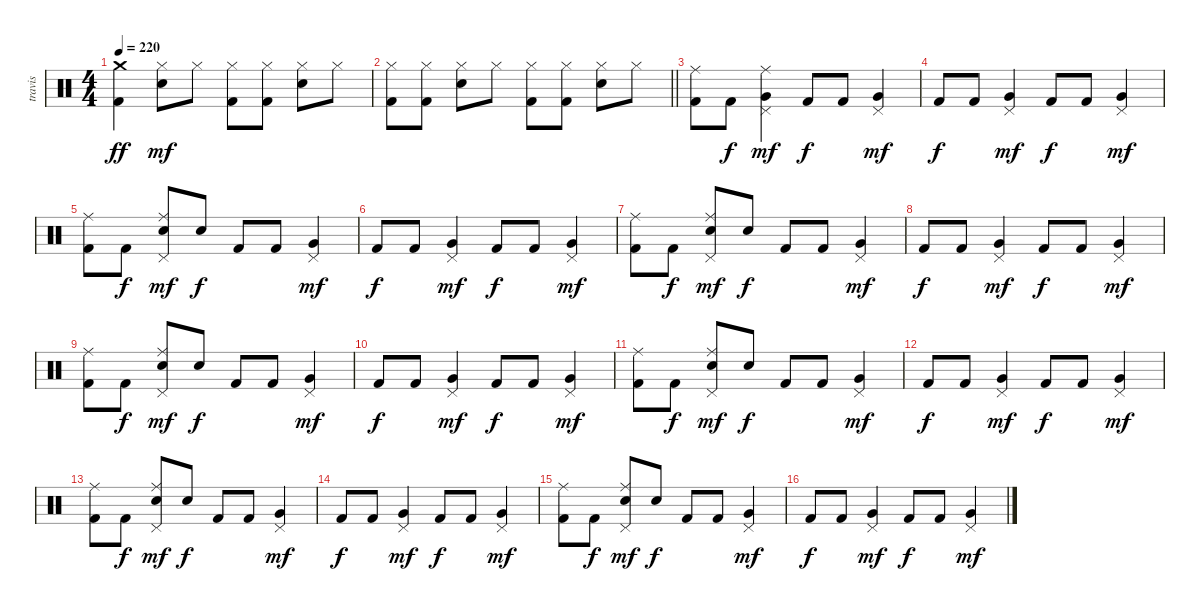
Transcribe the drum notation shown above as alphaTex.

\track ("travis" "travis") {instrument percussion}
\staff {score}
\articulation defaults
\ts (4 4)
\tempo 220
\clef neutral
\ks c
("Crash medium (hit)" "Kick (hit) 2").4{dy ff} ("Hi-Hat (closed)" "Electric Snare (hit)").8{dy mf} "Hi-Hat (closed)".8 ("Hi-Hat (closed)" "Kick (hit) 2").8 ("Hi-Hat (closed)" "Kick (hit) 2").8 ("Hi-Hat (closed)" "Electric Snare (hit)").8 "Hi-Hat (closed)".8 |
\barLineRight lightlight
("Hi-Hat (closed)" "Kick (hit) 2").8 ("Hi-Hat (closed)" "Kick (hit) 2").8 ("Hi-Hat (closed)" "Electric Snare (hit)").8 "Hi-Hat (closed)".8 ("Hi-Hat (closed)" "Kick (hit) 2").8 ("Hi-Hat (closed)" "Kick (hit) 2").8 ("Hi-Hat (closed)" "Electric Snare (hit)").8 "Hi-Hat (closed)".8 |
("Ride (middle)" "Kick (hit) 2").8 "Kick (hit) 2".8{dy f} ("Ride (middle)" "Pedal Hi-Hat (hit)" "Very Low Tom (hit)").4{dy mf} "Kick (hit) 2".8{dy f} "Kick (hit) 2".8 ("Pedal Hi-Hat (hit)" "Very Low Tom (hit)").4{dy mf} |
"Kick (hit) 2".8{dy f} "Kick (hit) 2".8 ("Pedal Hi-Hat (hit)" "Very Low Tom (hit)").4{dy mf} "Kick (hit) 2".8{dy f} "Kick (hit) 2".8 ("Pedal Hi-Hat (hit)" "Very Low Tom (hit)").4{dy mf} |
("Ride (middle)" "Kick (hit) 2").8 "Kick (hit) 2".8{dy f} ("Ride (middle)" "Pedal Hi-Hat (hit)" "Electric Snare (hit)").8{dy mf} "Electric Snare (hit)".8{dy f} "Kick (hit) 2".8 "Kick (hit) 2".8 ("Pedal Hi-Hat (hit)" "Very Low Tom (hit)").4{dy mf} |
"Kick (hit) 2".8{dy f} "Kick (hit) 2".8 ("Pedal Hi-Hat (hit)" "Very Low Tom (hit)").4{dy mf} "Kick (hit) 2".8{dy f} "Kick (hit) 2".8 ("Pedal Hi-Hat (hit)" "Very Low Tom (hit)").4{dy mf} |
("Ride (middle)" "Kick (hit) 2").8 "Kick (hit) 2".8{dy f} ("Ride (middle)" "Pedal Hi-Hat (hit)" "Electric Snare (hit)").8{dy mf} "Electric Snare (hit)".8{dy f} "Kick (hit) 2".8 "Kick (hit) 2".8 ("Pedal Hi-Hat (hit)" "Very Low Tom (hit)").4{dy mf} |
"Kick (hit) 2".8{dy f} "Kick (hit) 2".8 ("Pedal Hi-Hat (hit)" "Very Low Tom (hit)").4{dy mf} "Kick (hit) 2".8{dy f} "Kick (hit) 2".8 ("Pedal Hi-Hat (hit)" "Very Low Tom (hit)").4{dy mf} |
("Ride (middle)" "Kick (hit) 2").8 "Kick (hit) 2".8{dy f} ("Ride (middle)" "Pedal Hi-Hat (hit)" "Electric Snare (hit)").8{dy mf} "Electric Snare (hit)".8{dy f} "Kick (hit) 2".8 "Kick (hit) 2".8 ("Pedal Hi-Hat (hit)" "Very Low Tom (hit)").4{dy mf} |
"Kick (hit) 2".8{dy f} "Kick (hit) 2".8 ("Pedal Hi-Hat (hit)" "Very Low Tom (hit)").4{dy mf} "Kick (hit) 2".8{dy f} "Kick (hit) 2".8 ("Pedal Hi-Hat (hit)" "Very Low Tom (hit)").4{dy mf} |
("Ride (middle)" "Kick (hit) 2").8 "Kick (hit) 2".8{dy f} ("Ride (middle)" "Pedal Hi-Hat (hit)" "Electric Snare (hit)").8{dy mf} "Electric Snare (hit)".8{dy f} "Kick (hit) 2".8 "Kick (hit) 2".8 ("Pedal Hi-Hat (hit)" "Very Low Tom (hit)").4{dy mf} |
"Kick (hit) 2".8{dy f} "Kick (hit) 2".8 ("Pedal Hi-Hat (hit)" "Very Low Tom (hit)").4{dy mf} "Kick (hit) 2".8{dy f} "Kick (hit) 2".8 ("Pedal Hi-Hat (hit)" "Very Low Tom (hit)").4{dy mf} |
("Ride (middle)" "Kick (hit) 2").8 "Kick (hit) 2".8{dy f} ("Ride (middle)" "Pedal Hi-Hat (hit)" "Electric Snare (hit)").8{dy mf} "Electric Snare (hit)".8{dy f} "Kick (hit) 2".8 "Kick (hit) 2".8 ("Pedal Hi-Hat (hit)" "Very Low Tom (hit)").4{dy mf} |
"Kick (hit) 2".8{dy f} "Kick (hit) 2".8 ("Pedal Hi-Hat (hit)" "Very Low Tom (hit)").4{dy mf} "Kick (hit) 2".8{dy f} "Kick (hit) 2".8 ("Pedal Hi-Hat (hit)" "Very Low Tom (hit)").4{dy mf} |
("Ride (middle)" "Kick (hit) 2").8 "Kick (hit) 2".8{dy f} ("Ride (middle)" "Pedal Hi-Hat (hit)" "Electric Snare (hit)").8{dy mf} "Electric Snare (hit)".8{dy f} "Kick (hit) 2".8 "Kick (hit) 2".8 ("Pedal Hi-Hat (hit)" "Very Low Tom (hit)").4{dy mf} |
"Kick (hit) 2".8{dy f} "Kick (hit) 2".8 ("Pedal Hi-Hat (hit)" "Very Low Tom (hit)").4{dy mf} "Kick (hit) 2".8{dy f} "Kick (hit) 2".8 ("Pedal Hi-Hat (hit)" "Very Low Tom (hit)").4{dy mf}
